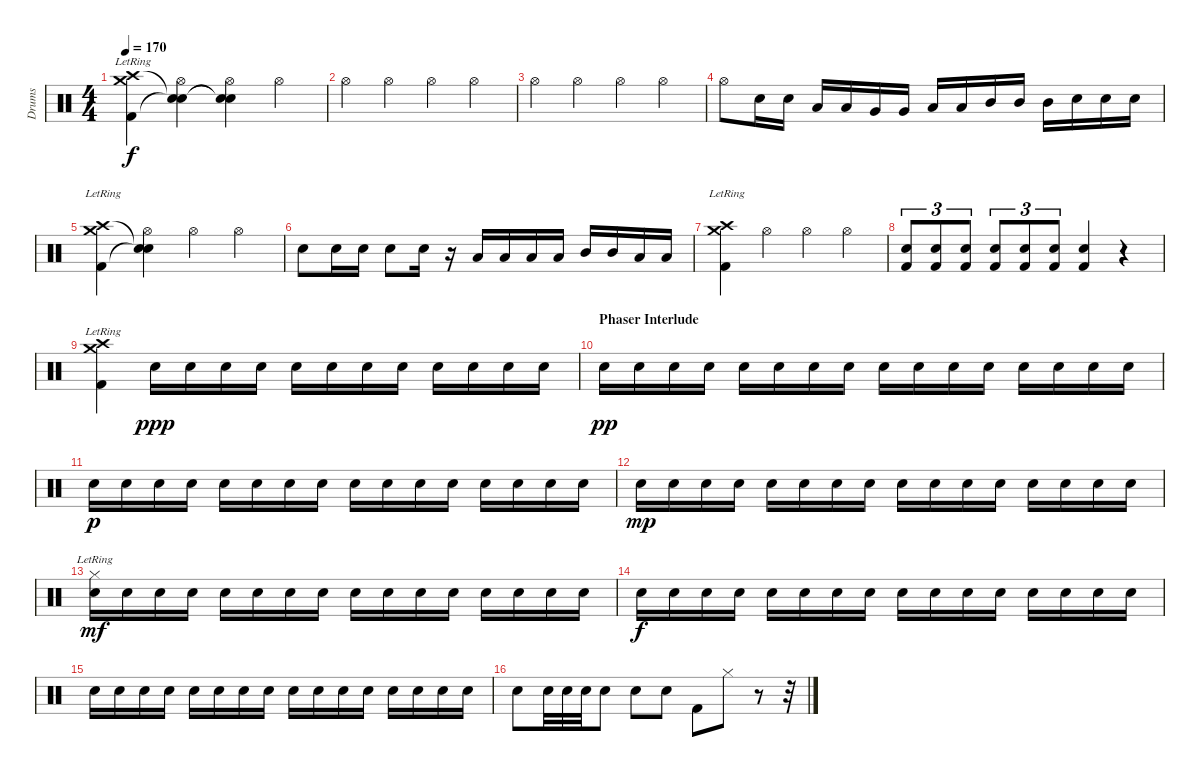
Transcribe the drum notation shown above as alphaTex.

\track ("Drums" "Drums") {instrument percussion}
\staff {score}
\articulation defaults
\ts (4 4)
\tempo 170
\clef neutral
\ks c
("Crash medium (hit)"{lr} "Crash high (hit)"{lr} "Kick (hit) 2").4{dy f} ("Hi-Hat (open)" "Snare (hit)"{t} "Snare (hit)"{t}).4 ("Hi-Hat (open)" "Snare (hit)"{t} "Snare (hit)"{t}).4 "Hi-Hat (open)".4 |
"Hi-Hat (open)".4 "Hi-Hat (open)".4 "Hi-Hat (open)".4 "Hi-Hat (open)".4 |
"Hi-Hat (open)".4 "Hi-Hat (open)".4 "Hi-Hat (open)".4 "Hi-Hat (open)".4 |
"Hi-Hat (open)".8 "Electric Snare (hit)".16 "Electric Snare (hit)".16 "Low Tom (hit)".16 "Low Tom (hit)".16 "Very Low Tom (hit)".16 "Very Low Tom (hit)".16 "Low Floor Tom (hit)".16 "Low Floor Tom (hit)".16 "Mid Tom (hit)".16 "Mid Tom (hit)".16 "Mid Tom (hit)".16 "Electric Snare (hit)".16 "Electric Snare (hit)".16 "Electric Snare (hit)".16 |
("Crash medium (hit)"{lr} "Crash high (hit)"{lr} "Kick (hit) 2").4 ("Hi-Hat (open)" "Snare (hit)"{t} "Snare (hit)"{t}).4 "Hi-Hat (open)".4 "Hi-Hat (open)".4 |
"Electric Snare (hit)".8 "Electric Snare (hit)".16 "Electric Snare (hit)".16 "Electric Snare (hit)".8 "Electric Snare (hit)".16 r.16 "Low Tom (hit)".16 "Low Tom (hit)".16 "Low Floor Tom (hit)".16 "Low Floor Tom (hit)".16 "Mid Tom (hit)".16 "Mid Tom (hit)".16 "Low Floor Tom (hit)".16 "Low Floor Tom (hit)".16 |
("Crash medium (hit)"{lr} "Crash high (hit)"{lr} "Kick (hit) 2").4 "Hi-Hat (open)".4 "Hi-Hat (open)".4 "Hi-Hat (open)".4 |
("Electric Snare (hit)" "Kick (hit) 2").8{tu (3 2)} ("Electric Snare (hit)" "Kick (hit) 2").8{tu (3 2)} ("Electric Snare (hit)" "Kick (hit) 2").8{tu (3 2)} ("Electric Snare (hit)" "Kick (hit) 2").8{tu (3 2)} ("Electric Snare (hit)" "Kick (hit) 2").8{tu (3 2)} ("Electric Snare (hit)" "Kick (hit) 2").8{tu (3 2)} ("Electric Snare (hit)" "Kick (hit) 2").4 r.4 |
("Crash medium (hit)"{lr} "Crash high (hit)"{lr} "Kick (hit) 2").4 "Snare (hit) 2".16{dy ppp} "Snare (hit) 2".16 "Snare (hit) 2".16 "Snare (hit) 2".16 "Snare (hit) 2".16 "Snare (hit) 2".16 "Snare (hit) 2".16 "Snare (hit) 2".16 "Snare (hit) 2".16 "Snare (hit) 2".16 "Snare (hit) 2".16 "Snare (hit) 2".16 |
\section ("" "Phaser Interlude")
"Snare (hit) 2".16{dy pp} "Snare (hit) 2".16 "Snare (hit) 2".16 "Snare (hit) 2".16 "Snare (hit) 2".16 "Snare (hit) 2".16 "Snare (hit) 2".16 "Snare (hit) 2".16 "Snare (hit) 2".16 "Snare (hit) 2".16 "Snare (hit) 2".16 "Snare (hit) 2".16 "Snare (hit) 2".16 "Snare (hit) 2".16 "Snare (hit) 2".16 "Snare (hit) 2".16 |
"Snare (hit) 2".16{dy p} "Snare (hit) 2".16 "Snare (hit) 2".16 "Snare (hit) 2".16 "Snare (hit) 2".16 "Snare (hit) 2".16 "Snare (hit) 2".16 "Snare (hit) 2".16 "Snare (hit) 2".16 "Snare (hit) 2".16 "Snare (hit) 2".16 "Snare (hit) 2".16 "Snare (hit) 2".16 "Snare (hit) 2".16 "Snare (hit) 2".16 "Snare (hit) 2".16 |
"Snare (hit) 2".16{dy mp} "Snare (hit) 2".16 "Snare (hit) 2".16 "Snare (hit) 2".16 "Snare (hit) 2".16 "Snare (hit) 2".16 "Snare (hit) 2".16 "Snare (hit) 2".16 "Snare (hit) 2".16 "Snare (hit) 2".16 "Snare (hit) 2".16 "Snare (hit) 2".16 "Snare (hit) 2".16 "Snare (hit) 2".16 "Snare (hit) 2".16 "Snare (hit) 2".16 |
("Hi-Hat (closed)"{lr} "Snare (hit) 2").16{dy mf} "Snare (hit) 2".16 "Snare (hit) 2".16 "Snare (hit) 2".16 "Snare (hit) 2".16 "Snare (hit) 2".16 "Snare (hit) 2".16 "Snare (hit) 2".16 "Snare (hit) 2".16 "Snare (hit) 2".16 "Snare (hit) 2".16 "Snare (hit) 2".16 "Snare (hit) 2".16 "Snare (hit) 2".16 "Snare (hit) 2".16 "Snare (hit) 2".16 |
"Snare (hit) 2".16{dy f} "Snare (hit) 2".16 "Snare (hit) 2".16 "Snare (hit) 2".16 "Snare (hit) 2".16 "Snare (hit) 2".16 "Snare (hit) 2".16 "Snare (hit) 2".16 "Snare (hit) 2".16 "Snare (hit) 2".16 "Snare (hit) 2".16 "Snare (hit) 2".16 "Snare (hit) 2".16 "Snare (hit) 2".16 "Snare (hit) 2".16 "Snare (hit) 2".16 |
"Snare (hit) 2".16 "Snare (hit) 2".16 "Snare (hit) 2".16 "Snare (hit) 2".16 "Snare (hit) 2".16 "Snare (hit) 2".16 "Snare (hit) 2".16 "Snare (hit) 2".16 "Snare (hit) 2".16 "Snare (hit) 2".16 "Snare (hit) 2".16 "Snare (hit) 2".16 "Snare (hit) 2".16 "Snare (hit) 2".16 "Snare (hit) 2".16 "Snare (hit) 2".16 |
"Snare (hit) 2".8 "Snare (hit) 2".32 "Snare (hit) 2".32 "Snare (hit) 2".32 "Snare (hit) 2".8 "Snare (hit) 2".8 "Snare (hit) 2".8 "Kick (hit) 2".8 "Hi-Hat (closed)".8 r.8 r.32
